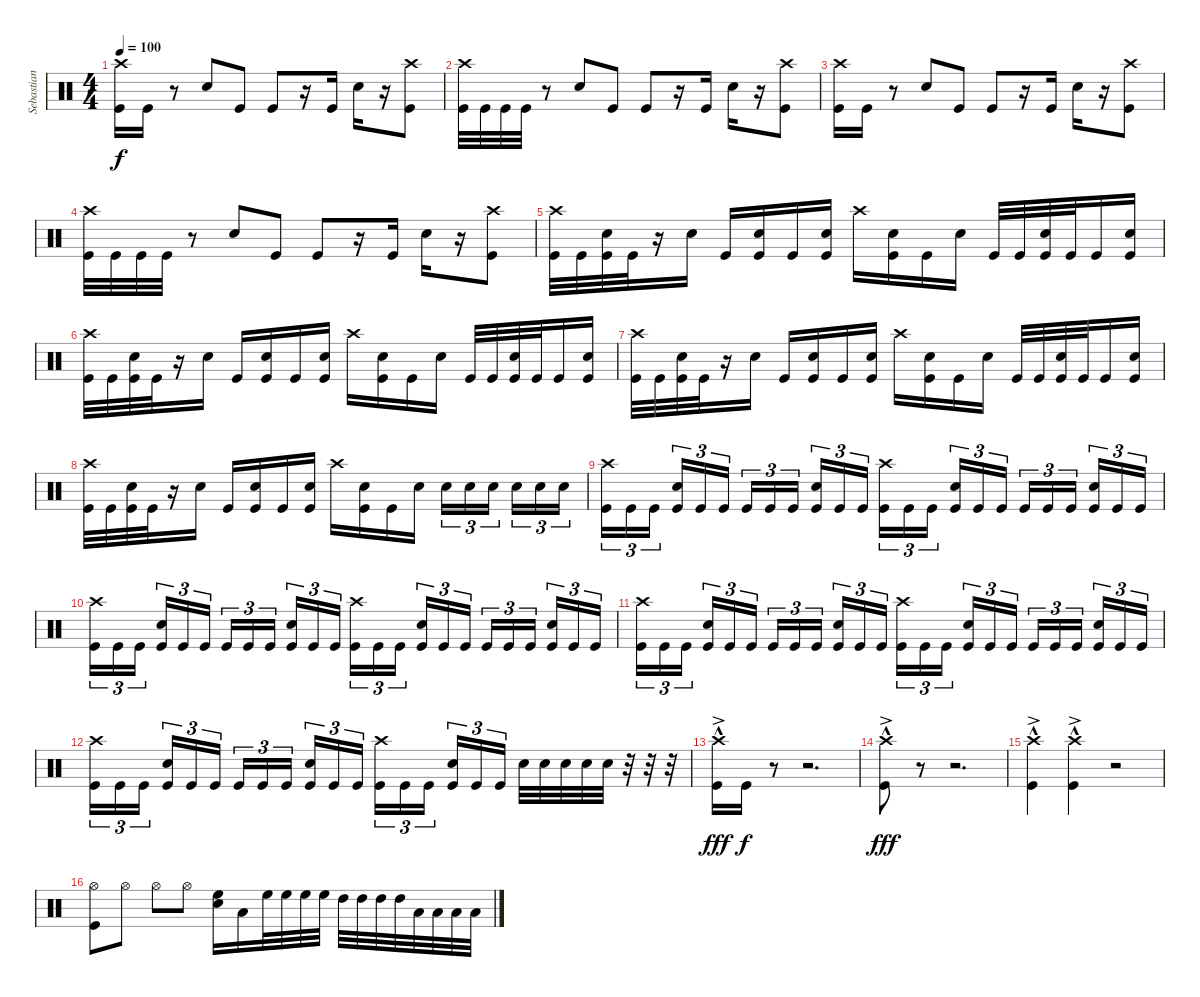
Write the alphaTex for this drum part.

\track ("Sebastian Heldt" "Sebastian ") {instrument percussion}
\staff {score}
\articulation defaults
\ts (4 4)
\tempo 100
\clef neutral
\ks c
("Kick (hit)" "Crash high (hit)").16{dy f} "Kick (hit)".16 r.8 "Snare (hit) 2".8 "Kick (hit)".8 "Kick (hit)".8 r.16 "Kick (hit)".16 "Snare (hit) 2".16 r.16 ("Kick (hit)" "Crash high (hit)").8 |
("Kick (hit)" "Crash high (hit)").32 "Kick (hit)".32 "Kick (hit)".32 "Kick (hit)".32 r.8 "Snare (hit) 2".8 "Kick (hit)".8 "Kick (hit)".8 r.16 "Kick (hit)".16 "Snare (hit) 2".16 r.16 ("Kick (hit)" "Crash high (hit)").8 |
("Kick (hit)" "Crash high (hit)").16 "Kick (hit)".16 r.8 "Snare (hit) 2".8 "Kick (hit)".8 "Kick (hit)".8 r.16 "Kick (hit)".16 "Snare (hit) 2".16 r.16 ("Kick (hit)" "Crash high (hit)").8 |
("Kick (hit)" "Crash high (hit)").32 "Kick (hit)".32 "Kick (hit)".32 "Kick (hit)".32 r.8 "Snare (hit) 2".8 "Kick (hit)".8 "Kick (hit)".8 r.16 "Kick (hit)".16 "Snare (hit) 2".16 r.16 ("Kick (hit)" "Crash high (hit)").8 |
("Kick (hit)" "Crash high (hit)").32 "Kick (hit)".32 ("Kick (hit)" "Snare (hit) 2").32 "Kick (hit)".32 r.16 "Snare (hit) 2".16 "Kick (hit)".16 ("Kick (hit)" "Snare (hit) 2").16 "Kick (hit)".16 ("Kick (hit)" "Snare (hit) 2").16 "Crash high (hit)".16 ("Kick (hit)" "Snare (hit) 2").16 "Kick (hit)".16 "Snare (hit) 2".16 "Kick (hit)".32 "Kick (hit)".32 ("Kick (hit)" "Snare (hit) 2").32 "Kick (hit)".32 "Kick (hit)".16 ("Kick (hit)" "Snare (hit) 2").16 |
("Kick (hit)" "Crash high (hit)").32 "Kick (hit)".32 ("Kick (hit)" "Snare (hit) 2").32 "Kick (hit)".32 r.16 "Snare (hit) 2".16 "Kick (hit)".16 ("Kick (hit)" "Snare (hit) 2").16 "Kick (hit)".16 ("Kick (hit)" "Snare (hit) 2").16 "Crash high (hit)".16 ("Kick (hit)" "Snare (hit) 2").16 "Kick (hit)".16 "Snare (hit) 2".16 "Kick (hit)".32 "Kick (hit)".32 ("Kick (hit)" "Snare (hit) 2").32 "Kick (hit)".32 "Kick (hit)".16 ("Kick (hit)" "Snare (hit) 2").16 |
("Kick (hit)" "Crash high (hit)").32 "Kick (hit)".32 ("Kick (hit)" "Snare (hit) 2").32 "Kick (hit)".32 r.16 "Snare (hit) 2".16 "Kick (hit)".16 ("Kick (hit)" "Snare (hit) 2").16 "Kick (hit)".16 ("Kick (hit)" "Snare (hit) 2").16 "Crash high (hit)".16 ("Kick (hit)" "Snare (hit) 2").16 "Kick (hit)".16 "Snare (hit) 2".16 "Kick (hit)".32 "Kick (hit)".32 ("Kick (hit)" "Snare (hit) 2").32 "Kick (hit)".32 "Kick (hit)".16 ("Kick (hit)" "Snare (hit) 2").16 |
("Kick (hit)" "Crash high (hit)").32 "Kick (hit)".32 ("Kick (hit)" "Snare (hit) 2").32 "Kick (hit)".32 r.16 "Snare (hit) 2".16 "Kick (hit)".16 ("Kick (hit)" "Snare (hit) 2").16 "Kick (hit)".16 ("Kick (hit)" "Snare (hit) 2").16 "Crash high (hit)".16 ("Kick (hit)" "Snare (hit) 2").16 "Kick (hit)".16 "Snare (hit) 2".16 "Snare (hit) 2".16{tu (3 2)} "Snare (hit) 2".16{tu (3 2)} "Snare (hit) 2".16{tu (3 2) beam splitsecondary} "Snare (hit) 2".16{tu (3 2)} "Snare (hit) 2".16{tu (3 2)} "Snare (hit) 2".16{tu (3 2)} |
("Kick (hit)" "Crash high (hit)").16{tu (3 2)} "Kick (hit)".16{tu (3 2)} "Kick (hit)".16{tu (3 2) beam splitsecondary} ("Kick (hit)" "Snare (hit) 2").16{tu (3 2)} "Kick (hit)".16{tu (3 2)} "Kick (hit)".16{tu (3 2)} "Kick (hit)".16{tu (3 2)} "Kick (hit)".16{tu (3 2)} "Kick (hit)".16{tu (3 2) beam splitsecondary} ("Kick (hit)" "Snare (hit) 2").16{tu (3 2)} "Kick (hit)".16{tu (3 2)} "Kick (hit)".16{tu (3 2)} ("Kick (hit)" "Crash high (hit)").16{tu (3 2)} "Kick (hit)".16{tu (3 2)} "Kick (hit)".16{tu (3 2) beam splitsecondary} ("Kick (hit)" "Snare (hit) 2").16{tu (3 2)} "Kick (hit)".16{tu (3 2)} "Kick (hit)".16{tu (3 2)} "Kick (hit)".16{tu (3 2)} "Kick (hit)".16{tu (3 2)} "Kick (hit)".16{tu (3 2) beam splitsecondary} ("Kick (hit)" "Snare (hit) 2").16{tu (3 2)} "Kick (hit)".16{tu (3 2)} "Kick (hit)".16{tu (3 2)} |
("Kick (hit)" "Crash high (hit)").16{tu (3 2)} "Kick (hit)".16{tu (3 2)} "Kick (hit)".16{tu (3 2) beam splitsecondary} ("Kick (hit)" "Snare (hit) 2").16{tu (3 2)} "Kick (hit)".16{tu (3 2)} "Kick (hit)".16{tu (3 2)} "Kick (hit)".16{tu (3 2)} "Kick (hit)".16{tu (3 2)} "Kick (hit)".16{tu (3 2) beam splitsecondary} ("Kick (hit)" "Snare (hit) 2").16{tu (3 2)} "Kick (hit)".16{tu (3 2)} "Kick (hit)".16{tu (3 2)} ("Kick (hit)" "Crash high (hit)").16{tu (3 2)} "Kick (hit)".16{tu (3 2)} "Kick (hit)".16{tu (3 2) beam splitsecondary} ("Kick (hit)" "Snare (hit) 2").16{tu (3 2)} "Kick (hit)".16{tu (3 2)} "Kick (hit)".16{tu (3 2)} "Kick (hit)".16{tu (3 2)} "Kick (hit)".16{tu (3 2)} "Kick (hit)".16{tu (3 2) beam splitsecondary} ("Kick (hit)" "Snare (hit) 2").16{tu (3 2)} "Kick (hit)".16{tu (3 2)} "Kick (hit)".16{tu (3 2)} |
("Kick (hit)" "Crash high (hit)").16{tu (3 2)} "Kick (hit)".16{tu (3 2)} "Kick (hit)".16{tu (3 2) beam splitsecondary} ("Kick (hit)" "Snare (hit) 2").16{tu (3 2)} "Kick (hit)".16{tu (3 2)} "Kick (hit)".16{tu (3 2)} "Kick (hit)".16{tu (3 2)} "Kick (hit)".16{tu (3 2)} "Kick (hit)".16{tu (3 2) beam splitsecondary} ("Kick (hit)" "Snare (hit) 2").16{tu (3 2)} "Kick (hit)".16{tu (3 2)} "Kick (hit)".16{tu (3 2)} ("Kick (hit)" "Crash high (hit)").16{tu (3 2)} "Kick (hit)".16{tu (3 2)} "Kick (hit)".16{tu (3 2) beam splitsecondary} ("Kick (hit)" "Snare (hit) 2").16{tu (3 2)} "Kick (hit)".16{tu (3 2)} "Kick (hit)".16{tu (3 2)} "Kick (hit)".16{tu (3 2)} "Kick (hit)".16{tu (3 2)} "Kick (hit)".16{tu (3 2) beam splitsecondary} ("Kick (hit)" "Snare (hit) 2").16{tu (3 2)} "Kick (hit)".16{tu (3 2)} "Kick (hit)".16{tu (3 2)} |
("Kick (hit)" "Crash high (hit)").16{tu (3 2)} "Kick (hit)".16{tu (3 2)} "Kick (hit)".16{tu (3 2) beam splitsecondary} ("Kick (hit)" "Snare (hit) 2").16{tu (3 2)} "Kick (hit)".16{tu (3 2)} "Kick (hit)".16{tu (3 2)} "Kick (hit)".16{tu (3 2)} "Kick (hit)".16{tu (3 2)} "Kick (hit)".16{tu (3 2) beam splitsecondary} ("Kick (hit)" "Snare (hit) 2").16{tu (3 2)} "Kick (hit)".16{tu (3 2)} "Kick (hit)".16{tu (3 2)} ("Kick (hit)" "Crash high (hit)").16{tu (3 2)} "Kick (hit)".16{tu (3 2)} "Kick (hit)".16{tu (3 2) beam splitsecondary} ("Kick (hit)" "Snare (hit) 2").16{tu (3 2)} "Kick (hit)".16{tu (3 2)} "Kick (hit)".16{tu (3 2)} "Snare (hit) 2".32 "Snare (hit) 2".32 "Snare (hit) 2".32 "Snare (hit) 2".32 "Snare (hit) 2".32 r.32 r.32 r.32 |
("Kick (hit)"{hac pm} "Crash high (hit)"{ac}).16{dy fff} "Kick (hit)".16{dy f} r.8 r.2{d} |
("Kick (hit)"{hac pm} "Crash high (hit)"{ac}).8{dy fff} r.8 r.2{d} |
("Kick (hit)"{hac pm} "Crash high (hit)"{ac}).4 ("Kick (hit)"{hac pm} "Crash high (hit)"{ac}).4 r.2 |
("Hi-Hat (open)" "Kick (hit)").8 "Hi-Hat (open)".8 "Hi-Hat (open)".8 "Hi-Hat (open)".8 ("High Floor Tom (hit)" "Snare (hit) 2").16 "Low Tom (hit)".16 "High Floor Tom (hit)".32 "High Floor Tom (hit)".32 "High Floor Tom (hit)".32 "High Floor Tom (hit)".32 "High Tom (hit)".32 "High Tom (hit)".32 "High Tom (hit)".32 "High Tom (hit)".32 "Low Tom (hit)".32 "Low Tom (hit)".32 "Low Tom (hit)".32 "Low Tom (hit)".32
